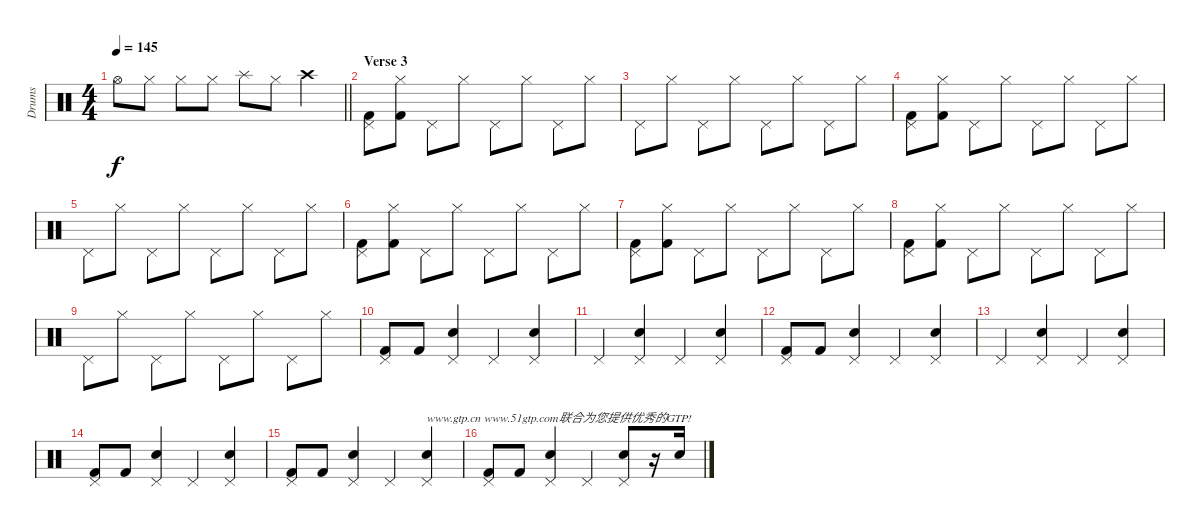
\track ("Drums" "Drums") {instrument percussion}
\staff {score}
\articulation defaults
\ts (4 4)
\tempo 145
\clef neutral
\barLineRight lightlight
\ks c "Hi-Hat (open)".8{dy f} "Hi-Hat (closed)".8 "Hi-Hat (closed)".8 "Hi-Hat (closed)".8 "Splash (hit)".8 "Hi-Hat (closed)".8 "Crash high (hit)".4
|
\section ("" "Verse 3")
("Kick (hit) 2" "Pedal Hi-Hat (hit)").8 ("Kick (hit) 2" "Hi-Hat (closed)").8 "Pedal Hi-Hat (hit)".8 "Hi-Hat (closed)".8 "Pedal Hi-Hat (hit)".8 "Hi-Hat (closed)".8 "Pedal Hi-Hat (hit)".8 "Hi-Hat (closed)".8 |
"Pedal Hi-Hat (hit)".8 "Hi-Hat (closed)".8 "Pedal Hi-Hat (hit)".8 "Hi-Hat (closed)".8 "Pedal Hi-Hat (hit)".8 "Hi-Hat (closed)".8 "Pedal Hi-Hat (hit)".8 "Hi-Hat (closed)".8 |
("Kick (hit) 2" "Pedal Hi-Hat (hit)").8 ("Kick (hit) 2" "Hi-Hat (closed)").8 "Pedal Hi-Hat (hit)".8 "Hi-Hat (closed)".8 "Pedal Hi-Hat (hit)".8 "Hi-Hat (closed)".8 "Pedal Hi-Hat (hit)".8 "Hi-Hat (closed)".8 |
"Pedal Hi-Hat (hit)".8 "Hi-Hat (closed)".8 "Pedal Hi-Hat (hit)".8 "Hi-Hat (closed)".8 "Pedal Hi-Hat (hit)".8 "Hi-Hat (closed)".8 "Pedal Hi-Hat (hit)".8 "Hi-Hat (closed)".8 |
("Kick (hit) 2" "Pedal Hi-Hat (hit)").8 ("Kick (hit) 2" "Hi-Hat (closed)").8 "Pedal Hi-Hat (hit)".8 "Hi-Hat (closed)".8 "Pedal Hi-Hat (hit)".8 "Hi-Hat (closed)".8 "Pedal Hi-Hat (hit)".8 "Hi-Hat (closed)".8 |
("Kick (hit) 2" "Pedal Hi-Hat (hit)").8 ("Kick (hit) 2" "Hi-Hat (closed)").8 "Pedal Hi-Hat (hit)".8 "Hi-Hat (closed)".8 "Pedal Hi-Hat (hit)".8 "Hi-Hat (closed)".8 "Pedal Hi-Hat (hit)".8 "Hi-Hat (closed)".8 |
("Kick (hit) 2" "Pedal Hi-Hat (hit)").8 ("Kick (hit) 2" "Hi-Hat (closed)").8 "Pedal Hi-Hat (hit)".8 "Hi-Hat (closed)".8 "Pedal Hi-Hat (hit)".8 "Hi-Hat (closed)".8 "Pedal Hi-Hat (hit)".8 "Hi-Hat (closed)".8 |
"Pedal Hi-Hat (hit)".8 "Hi-Hat (closed)".8 "Pedal Hi-Hat (hit)".8 "Hi-Hat (closed)".8 "Pedal Hi-Hat (hit)".8 "Hi-Hat (closed)".8 "Pedal Hi-Hat (hit)".8 "Hi-Hat (closed)".8 |
("Kick (hit) 2" "Pedal Hi-Hat (hit)").8 "Kick (hit) 2".8 ("Electric Snare (hit)" "Pedal Hi-Hat (hit)").4 "Pedal Hi-Hat (hit)".4 ("Electric Snare (hit)" "Pedal Hi-Hat (hit)").4 |
"Pedal Hi-Hat (hit)".4 ("Electric Snare (hit)" "Pedal Hi-Hat (hit)").4 "Pedal Hi-Hat (hit)".4 ("Electric Snare (hit)" "Pedal Hi-Hat (hit)").4 |
("Kick (hit) 2" "Pedal Hi-Hat (hit)").8 "Kick (hit) 2".8 ("Electric Snare (hit)" "Pedal Hi-Hat (hit)").4 "Pedal Hi-Hat (hit)".4 ("Electric Snare (hit)" "Pedal Hi-Hat (hit)").4 |
"Pedal Hi-Hat (hit)".4 ("Electric Snare (hit)" "Pedal Hi-Hat (hit)").4 "Pedal Hi-Hat (hit)".4 ("Electric Snare (hit)" "Pedal Hi-Hat (hit)").4 |
("Kick (hit) 2" "Pedal Hi-Hat (hit)").8 "Kick (hit) 2".8 ("Electric Snare (hit)" "Pedal Hi-Hat (hit)").4 "Pedal Hi-Hat (hit)".4 ("Electric Snare (hit)" "Pedal Hi-Hat (hit)").4 |
("Kick (hit) 2" "Pedal Hi-Hat (hit)").8 "Kick (hit) 2".8 ("Electric Snare (hit)" "Pedal Hi-Hat (hit)").4 "Pedal Hi-Hat (hit)".4 ("Electric Snare (hit)" "Pedal Hi-Hat (hit)").4{txt "www.gtp.cn www.51gtp.com联合为您提供优秀的GTP!"} |
("Kick (hit) 2" "Pedal Hi-Hat (hit)").8 "Kick (hit) 2".8 ("Electric Snare (hit)" "Pedal Hi-Hat (hit)").4 "Pedal Hi-Hat (hit)".4 ("Electric Snare (hit)" "Pedal Hi-Hat (hit)").8 r.16 "Electric Snare (hit)".16
